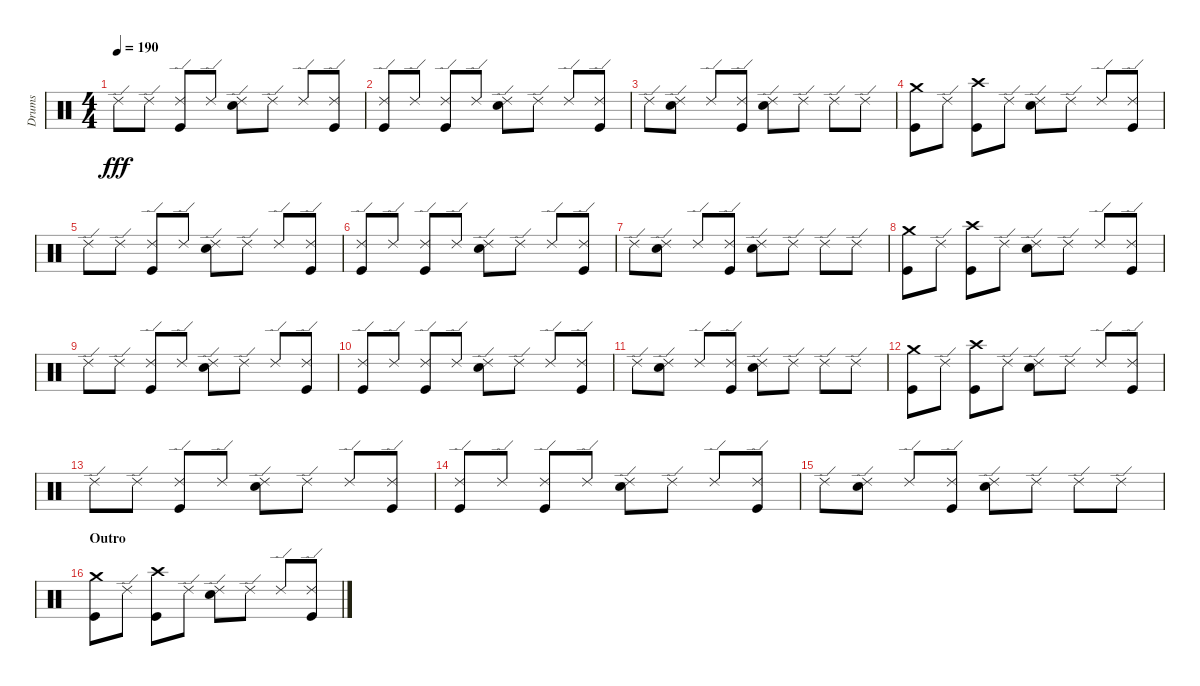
\track ("Drums" "Drums") {instrument percussion}
\staff {score}
\articulation defaults
\ts (4 4)
\tempo 190
\clef neutral
\ks c "Ride (edge) 2".8{dy fff} "Ride (edge) 2".8
("Ride (edge) 2" "Kick (hit)").8 "Ride (edge) 2".8 ("Ride (edge) 2" "Snare (hit) 2").8 "Ride (edge) 2".8 "Ride (edge) 2".8 ("Ride (edge) 2" "Kick (hit)").8 |
("Ride (edge) 2" "Kick (hit)").8 "Ride (edge) 2".8 ("Ride (edge) 2" "Kick (hit)").8 "Ride (edge) 2".8 ("Ride (edge) 2" "Snare (hit) 2").8 "Ride (edge) 2".8 "Ride (edge) 2".8 ("Ride (edge) 2" "Kick (hit)").8 |
"Ride (edge) 2".8 ("Ride (edge) 2" "Snare (hit) 2").8 "Ride (edge) 2".8 ("Ride (edge) 2" "Kick (hit)").8 ("Ride (edge) 2" "Snare (hit) 2").8 "Ride (edge) 2".8 "Ride (edge) 2".8 "Ride (edge) 2".8 |
("Crash medium (hit)" "Kick (hit)").8 "Ride (edge) 2".8 ("Crash high (hit)" "Kick (hit)").8 "Ride (edge) 2".8 ("Ride (edge) 2" "Snare (hit) 2").8 "Ride (edge) 2".8 "Ride (edge) 2".8 ("Ride (edge) 2" "Kick (hit)").8 |
"Ride (edge) 2".8 "Ride (edge) 2".8 ("Ride (edge) 2" "Kick (hit)").8 "Ride (edge) 2".8 ("Ride (edge) 2" "Snare (hit) 2").8 "Ride (edge) 2".8 "Ride (edge) 2".8 ("Ride (edge) 2" "Kick (hit)").8 |
("Ride (edge) 2" "Kick (hit)").8 "Ride (edge) 2".8 ("Ride (edge) 2" "Kick (hit)").8 "Ride (edge) 2".8 ("Ride (edge) 2" "Snare (hit) 2").8 "Ride (edge) 2".8 "Ride (edge) 2".8 ("Ride (edge) 2" "Kick (hit)").8 |
"Ride (edge) 2".8 ("Ride (edge) 2" "Snare (hit) 2").8 "Ride (edge) 2".8 ("Ride (edge) 2" "Kick (hit)").8 ("Ride (edge) 2" "Snare (hit) 2").8 "Ride (edge) 2".8 "Ride (edge) 2".8 "Ride (edge) 2".8 |
("Crash medium (hit)" "Kick (hit)").8 "Ride (edge) 2".8 ("Crash high (hit)" "Kick (hit)").8 "Ride (edge) 2".8 ("Ride (edge) 2" "Snare (hit) 2").8 "Ride (edge) 2".8 "Ride (edge) 2".8 ("Ride (edge) 2" "Kick (hit)").8 |
"Ride (edge) 2".8 "Ride (edge) 2".8 ("Ride (edge) 2" "Kick (hit)").8 "Ride (edge) 2".8 ("Ride (edge) 2" "Snare (hit) 2").8 "Ride (edge) 2".8 "Ride (edge) 2".8 ("Ride (edge) 2" "Kick (hit)").8 |
("Ride (edge) 2" "Kick (hit)").8 "Ride (edge) 2".8 ("Ride (edge) 2" "Kick (hit)").8 "Ride (edge) 2".8 ("Ride (edge) 2" "Snare (hit) 2").8 "Ride (edge) 2".8 "Ride (edge) 2".8 ("Ride (edge) 2" "Kick (hit)").8 |
"Ride (edge) 2".8 ("Ride (edge) 2" "Snare (hit) 2").8 "Ride (edge) 2".8 ("Ride (edge) 2" "Kick (hit)").8 ("Ride (edge) 2" "Snare (hit) 2").8 "Ride (edge) 2".8 "Ride (edge) 2".8 "Ride (edge) 2".8 |
("Crash medium (hit)" "Kick (hit)").8 "Ride (edge) 2".8 ("Crash high (hit)" "Kick (hit)").8 "Ride (edge) 2".8 ("Ride (edge) 2" "Snare (hit) 2").8 "Ride (edge) 2".8 "Ride (edge) 2".8 ("Ride (edge) 2" "Kick (hit)").8 |
"Ride (edge) 2".8 "Ride (edge) 2".8 ("Ride (edge) 2" "Kick (hit)").8 "Ride (edge) 2".8 ("Ride (edge) 2" "Snare (hit) 2").8 "Ride (edge) 2".8 "Ride (edge) 2".8 ("Ride (edge) 2" "Kick (hit)").8 |
("Ride (edge) 2" "Kick (hit)").8 "Ride (edge) 2".8 ("Ride (edge) 2" "Kick (hit)").8 "Ride (edge) 2".8 ("Ride (edge) 2" "Snare (hit) 2").8 "Ride (edge) 2".8 "Ride (edge) 2".8 ("Ride (edge) 2" "Kick (hit)").8 |
"Ride (edge) 2".8 ("Ride (edge) 2" "Snare (hit) 2").8 "Ride (edge) 2".8 ("Ride (edge) 2" "Kick (hit)").8 ("Ride (edge) 2" "Snare (hit) 2").8 "Ride (edge) 2".8 "Ride (edge) 2".8 "Ride (edge) 2".8 |
\section ("" "Outro")
("Crash medium (hit)" "Kick (hit)").8 "Ride (edge) 2".8 ("Crash high (hit)" "Kick (hit)").8 "Ride (edge) 2".8 ("Ride (edge) 2" "Snare (hit) 2").8 "Ride (edge) 2".8 "Ride (edge) 2".8 ("Ride (edge) 2" "Kick (hit)").8
